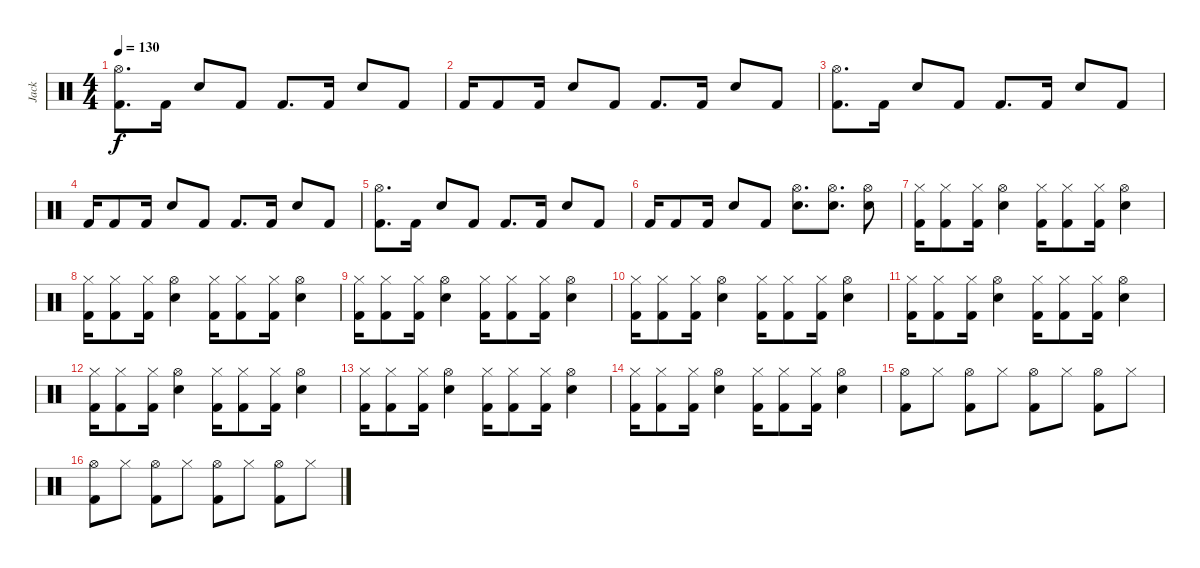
\track ("Jack" "Jack") {instrument percussion}
\staff {score}
\articulation defaults
\ts (4 4)
\tempo 130
\clef neutral
\ks c
("Hi-Hat (open)" "Kick (hit) 2").8{d dy f} "Kick (hit) 2".16 "Snare (hit) 2".8 "Kick (hit) 2".8 "Kick (hit) 2".8{d} "Kick (hit) 2".16 "Snare (hit) 2".8 "Kick (hit) 2".8 |
"Kick (hit) 2".16 "Kick (hit) 2".8 "Kick (hit) 2".16 "Snare (hit) 2".8 "Kick (hit) 2".8 "Kick (hit) 2".8{d} "Kick (hit) 2".16 "Snare (hit) 2".8 "Kick (hit) 2".8 |
("Hi-Hat (open)" "Kick (hit) 2").8{d} "Kick (hit) 2".16 "Snare (hit) 2".8 "Kick (hit) 2".8 "Kick (hit) 2".8{d} "Kick (hit) 2".16 "Snare (hit) 2".8 "Kick (hit) 2".8 |
"Kick (hit) 2".16 "Kick (hit) 2".8 "Kick (hit) 2".16 "Snare (hit) 2".8 "Kick (hit) 2".8 "Kick (hit) 2".8{d} "Kick (hit) 2".16 "Snare (hit) 2".8 "Kick (hit) 2".8 |
("Hi-Hat (open)" "Kick (hit) 2").8{d} "Kick (hit) 2".16 "Snare (hit) 2".8 "Kick (hit) 2".8 "Kick (hit) 2".8{d} "Kick (hit) 2".16 "Snare (hit) 2".8 "Kick (hit) 2".8 |
"Kick (hit) 2".16 "Kick (hit) 2".8 "Kick (hit) 2".16 "Snare (hit) 2".8 "Kick (hit) 2".8 ("Hi-Hat (open)" "Snare (hit) 2").8{d} ("Hi-Hat (open)" "Snare (hit) 2").8{d} ("Hi-Hat (open)" "Snare (hit) 2").8 |
("Hi-Hat (closed)" "Kick (hit) 2").16 ("Hi-Hat (closed)" "Kick (hit) 2").8 ("Hi-Hat (closed)" "Kick (hit) 2").16 ("Hi-Hat (open)" "Snare (hit) 2").4 ("Hi-Hat (closed)" "Kick (hit) 2").16 ("Hi-Hat (closed)" "Kick (hit) 2").8 ("Hi-Hat (closed)" "Kick (hit) 2").16 ("Hi-Hat (open)" "Snare (hit) 2").4 |
("Hi-Hat (closed)" "Kick (hit) 2").16 ("Hi-Hat (closed)" "Kick (hit) 2").8 ("Hi-Hat (closed)" "Kick (hit) 2").16 ("Hi-Hat (open)" "Snare (hit) 2").4 ("Hi-Hat (closed)" "Kick (hit) 2").16 ("Hi-Hat (closed)" "Kick (hit) 2").8 ("Hi-Hat (closed)" "Kick (hit) 2").16 ("Hi-Hat (open)" "Snare (hit) 2").4 |
("Hi-Hat (closed)" "Kick (hit) 2").16 ("Hi-Hat (closed)" "Kick (hit) 2").8 ("Hi-Hat (closed)" "Kick (hit) 2").16 ("Hi-Hat (open)" "Snare (hit) 2").4 ("Hi-Hat (closed)" "Kick (hit) 2").16 ("Hi-Hat (closed)" "Kick (hit) 2").8 ("Hi-Hat (closed)" "Kick (hit) 2").16 ("Hi-Hat (open)" "Snare (hit) 2").4 |
("Hi-Hat (closed)" "Kick (hit) 2").16 ("Hi-Hat (closed)" "Kick (hit) 2").8 ("Hi-Hat (closed)" "Kick (hit) 2").16 ("Hi-Hat (open)" "Snare (hit) 2").4 ("Hi-Hat (closed)" "Kick (hit) 2").16 ("Hi-Hat (closed)" "Kick (hit) 2").8 ("Hi-Hat (closed)" "Kick (hit) 2").16 ("Hi-Hat (open)" "Snare (hit) 2").4 |
("Hi-Hat (closed)" "Kick (hit) 2").16 ("Hi-Hat (closed)" "Kick (hit) 2").8 ("Hi-Hat (closed)" "Kick (hit) 2").16 ("Hi-Hat (open)" "Snare (hit) 2").4 ("Hi-Hat (closed)" "Kick (hit) 2").16 ("Hi-Hat (closed)" "Kick (hit) 2").8 ("Hi-Hat (closed)" "Kick (hit) 2").16 ("Hi-Hat (open)" "Snare (hit) 2").4 |
("Hi-Hat (closed)" "Kick (hit) 2").16 ("Hi-Hat (closed)" "Kick (hit) 2").8 ("Hi-Hat (closed)" "Kick (hit) 2").16 ("Hi-Hat (open)" "Snare (hit) 2").4 ("Hi-Hat (closed)" "Kick (hit) 2").16 ("Hi-Hat (closed)" "Kick (hit) 2").8 ("Hi-Hat (closed)" "Kick (hit) 2").16 ("Hi-Hat (open)" "Snare (hit) 2").4 |
("Hi-Hat (closed)" "Kick (hit) 2").16 ("Hi-Hat (closed)" "Kick (hit) 2").8 ("Hi-Hat (closed)" "Kick (hit) 2").16 ("Hi-Hat (open)" "Snare (hit) 2").4 ("Hi-Hat (closed)" "Kick (hit) 2").16 ("Hi-Hat (closed)" "Kick (hit) 2").8 ("Hi-Hat (closed)" "Kick (hit) 2").16 ("Hi-Hat (open)" "Snare (hit) 2").4 |
("Hi-Hat (closed)" "Kick (hit) 2").16 ("Hi-Hat (closed)" "Kick (hit) 2").8 ("Hi-Hat (closed)" "Kick (hit) 2").16 ("Hi-Hat (open)" "Snare (hit) 2").4 ("Hi-Hat (closed)" "Kick (hit) 2").16 ("Hi-Hat (closed)" "Kick (hit) 2").8 ("Hi-Hat (closed)" "Kick (hit) 2").16 ("Hi-Hat (open)" "Snare (hit) 2").4 |
("Hi-Hat (open)" "Kick (hit) 2").8 "Hi-Hat (closed)".8 ("Hi-Hat (open)" "Kick (hit) 2").8 "Hi-Hat (closed)".8 ("Hi-Hat (open)" "Kick (hit) 2").8 "Hi-Hat (closed)".8 ("Hi-Hat (open)" "Kick (hit) 2").8 "Hi-Hat (closed)".8 |
("Hi-Hat (open)" "Kick (hit) 2").8 "Hi-Hat (closed)".8 ("Hi-Hat (open)" "Kick (hit) 2").8 "Hi-Hat (closed)".8 ("Hi-Hat (open)" "Kick (hit) 2").8 "Hi-Hat (closed)".8 ("Hi-Hat (open)" "Kick (hit) 2").8 "Hi-Hat (closed)".8
